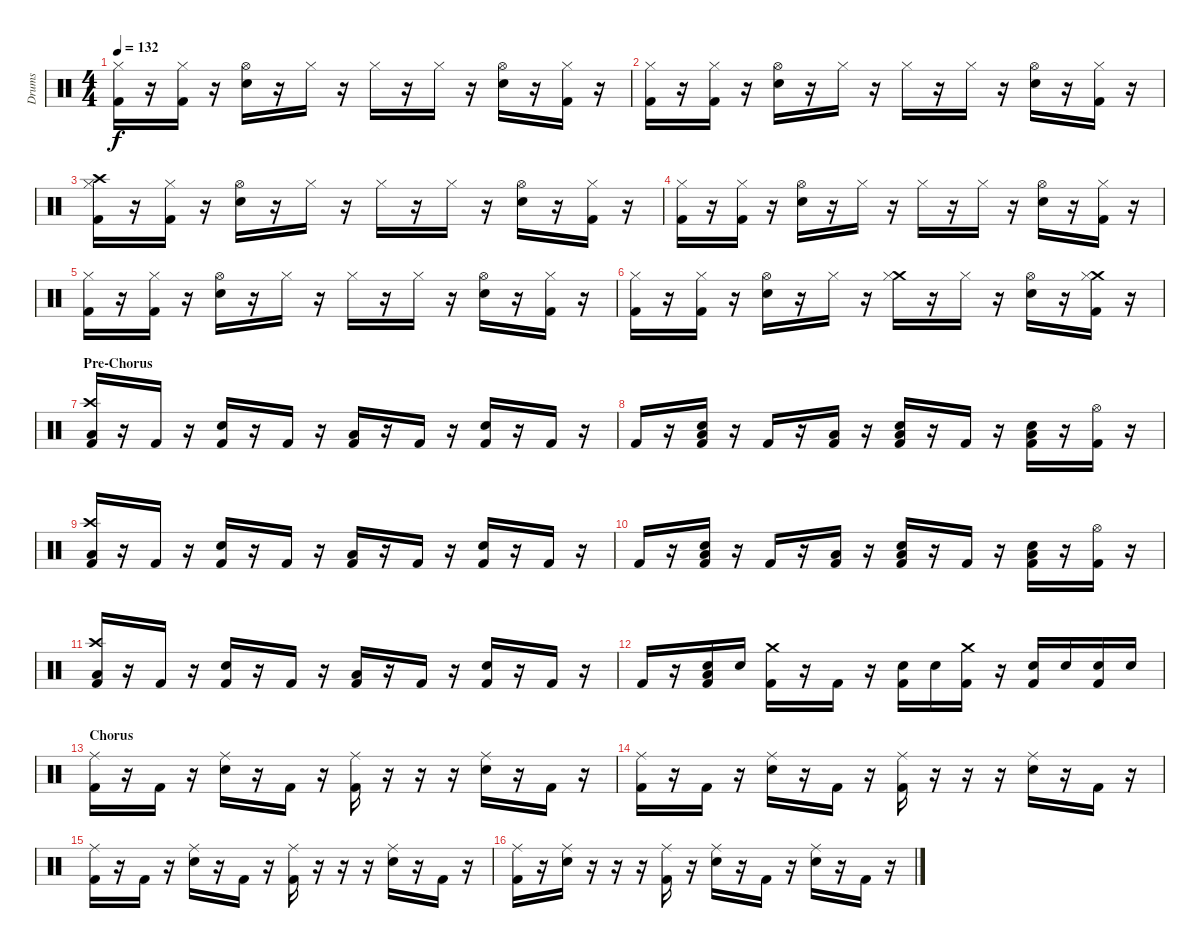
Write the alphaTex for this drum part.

\track ("Drums" "Drums") {instrument percussion}
\staff {score}
\articulation defaults
\ts (4 4)
\tempo 132
\clef neutral
\ks c
("Hi-Hat (closed)" "Kick (hit) 2").16{dy f} r.16 ("Hi-Hat (closed)" "Kick (hit) 2").16 r.16 ("Hi-Hat (open)" "Snare (hit) 2").16 r.16 "Hi-Hat (closed)".16 r.16 "Hi-Hat (closed)".16 r.16 "Hi-Hat (closed)".16 r.16 ("Hi-Hat (open)" "Snare (hit) 2").16 r.16 ("Hi-Hat (closed)" "Kick (hit) 2").16 r.16 |
("Hi-Hat (closed)" "Kick (hit) 2").16 r.16 ("Hi-Hat (closed)" "Kick (hit) 2").16 r.16 ("Hi-Hat (open)" "Snare (hit) 2").16 r.16 "Hi-Hat (closed)".16 r.16 "Hi-Hat (closed)".16 r.16 "Hi-Hat (closed)".16 r.16 ("Hi-Hat (open)" "Snare (hit) 2").16 r.16 ("Hi-Hat (closed)" "Kick (hit) 2").16 r.16 |
("Crash high (hit)" "Hi-Hat (closed)" "Kick (hit) 2").16 r.16 ("Hi-Hat (closed)" "Kick (hit) 2").16 r.16 ("Hi-Hat (open)" "Snare (hit) 2").16 r.16 "Hi-Hat (closed)".16 r.16 "Hi-Hat (closed)".16 r.16 "Hi-Hat (closed)".16 r.16 ("Hi-Hat (open)" "Snare (hit) 2").16 r.16 ("Hi-Hat (closed)" "Kick (hit) 2").16 r.16 |
("Hi-Hat (closed)" "Kick (hit) 2").16 r.16 ("Hi-Hat (closed)" "Kick (hit) 2").16 r.16 ("Hi-Hat (open)" "Snare (hit) 2").16 r.16 "Hi-Hat (closed)".16 r.16 "Hi-Hat (closed)".16 r.16 "Hi-Hat (closed)".16 r.16 ("Hi-Hat (open)" "Snare (hit) 2").16 r.16 ("Hi-Hat (closed)" "Kick (hit) 2").16 r.16 |
("Hi-Hat (closed)" "Kick (hit) 2").16 r.16 ("Hi-Hat (closed)" "Kick (hit) 2").16 r.16 ("Hi-Hat (open)" "Snare (hit) 2").16 r.16 "Hi-Hat (closed)".16 r.16 "Hi-Hat (closed)".16 r.16 "Hi-Hat (closed)".16 r.16 ("Hi-Hat (open)" "Snare (hit) 2").16 r.16 ("Hi-Hat (closed)" "Kick (hit) 2").16 r.16 |
("Hi-Hat (closed)" "Kick (hit) 2").16 r.16 ("Hi-Hat (closed)" "Kick (hit) 2").16 r.16 ("Hi-Hat (open)" "Snare (hit) 2").16 r.16 "Hi-Hat (closed)".16 r.16 ("Crash medium (hit)" "Hi-Hat (closed)").16 r.16 "Hi-Hat (closed)".16 r.16 ("Hi-Hat (open)" "Snare (hit) 2").16 r.16 ("Crash medium (hit)" "Hi-Hat (closed)" "Kick (hit) 2").16 r.16 |
\section ("" "Pre-Chorus")
("Crash high (hit)" "Low Tom (hit)" "Kick (hit) 2").16 r.16 "Kick (hit) 2".16 r.16 ("Snare (hit) 2" "Kick (hit) 2").16 r.16 "Kick (hit) 2".16 r.16 ("Low Tom (hit)" "Kick (hit) 2").16 r.16 "Kick (hit) 2".16 r.16 ("Snare (hit) 2" "Kick (hit) 2").16 r.16 "Kick (hit) 2".16 r.16 |
"Kick (hit) 2".16 r.16 ("Low Tom (hit)" "Snare (hit) 2" "Kick (hit) 2").16 r.16 "Kick (hit) 2".16 r.16 ("Low Tom (hit)" "Kick (hit) 2").16 r.16 ("Low Tom (hit)" "Snare (hit) 2" "Kick (hit) 2").16 r.16 "Kick (hit) 2".16 r.16 ("Low Tom (hit)" "Snare (hit) 2" "Kick (hit) 2").16 r.16 ("Hi-Hat (open)" "Kick (hit) 2").16 r.16 |
("Crash high (hit)" "Low Tom (hit)" "Kick (hit) 2").16 r.16 "Kick (hit) 2".16 r.16 ("Snare (hit) 2" "Kick (hit) 2").16 r.16 "Kick (hit) 2".16 r.16 ("Low Tom (hit)" "Kick (hit) 2").16 r.16 "Kick (hit) 2".16 r.16 ("Snare (hit) 2" "Kick (hit) 2").16 r.16 "Kick (hit) 2".16 r.16 |
"Kick (hit) 2".16 r.16 ("Low Tom (hit)" "Snare (hit) 2" "Kick (hit) 2").16 r.16 "Kick (hit) 2".16 r.16 ("Low Tom (hit)" "Kick (hit) 2").16 r.16 ("Low Tom (hit)" "Snare (hit) 2" "Kick (hit) 2").16 r.16 "Kick (hit) 2".16 r.16 ("Low Tom (hit)" "Snare (hit) 2" "Kick (hit) 2").16 r.16 ("Hi-Hat (open)" "Kick (hit) 2").16 r.16 |
("Crash high (hit)" "Low Tom (hit)" "Kick (hit) 2").16 r.16 "Kick (hit) 2".16 r.16 ("Snare (hit) 2" "Kick (hit) 2").16 r.16 "Kick (hit) 2".16 r.16 ("Low Tom (hit)" "Kick (hit) 2").16 r.16 "Kick (hit) 2".16 r.16 ("Snare (hit) 2" "Kick (hit) 2").16 r.16 "Kick (hit) 2".16 r.16 |
"Kick (hit) 2".16 r.16 ("Low Tom (hit)" "Snare (hit) 2" "Kick (hit) 2").16 "Snare (hit) 2".16 ("Crash medium (hit)" "Kick (hit) 2").16 r.16 "Kick (hit) 2".16 r.16 ("Snare (hit) 2" "Kick (hit) 2").16 "Snare (hit) 2".16 ("Crash medium (hit)" "Kick (hit) 2").16 r.16 ("Snare (hit) 2" "Kick (hit) 2").16 "Snare (hit) 2".16 ("Snare (hit) 2" "Kick (hit) 2").16 "Snare (hit) 2".16 |
\section ("" "Chorus")
("Ride (middle)" "Kick (hit) 2").16 r.16 "Kick (hit) 2".16 r.16 ("Ride (middle)" "Snare (hit) 2").16 r.16 "Kick (hit) 2".16 r.16 ("Ride (middle)" "Kick (hit) 2").16 r.16 r.16 r.16 ("Ride (middle)" "Snare (hit) 2").16 r.16 "Kick (hit) 2".16 r.16 |
("Ride (middle)" "Kick (hit) 2").16 r.16 "Kick (hit) 2".16 r.16 ("Ride (middle)" "Snare (hit) 2").16 r.16 "Kick (hit) 2".16 r.16 ("Ride (middle)" "Kick (hit) 2").16 r.16 r.16 r.16 ("Ride (middle)" "Snare (hit) 2").16 r.16 "Kick (hit) 2".16 r.16 |
("Ride (middle)" "Kick (hit) 2").16 r.16 "Kick (hit) 2".16 r.16 ("Ride (middle)" "Snare (hit) 2").16 r.16 "Kick (hit) 2".16 r.16 ("Ride (middle)" "Kick (hit) 2").16 r.16 r.16 r.16 ("Ride (middle)" "Snare (hit) 2").16 r.16 "Kick (hit) 2".16 r.16 |
("Ride (middle)" "Kick (hit) 2").16 r.16 ("Ride (middle)" "Snare (hit) 2").16 r.16 r.16 r.16 ("Ride (middle)" "Kick (hit) 2").16 r.16 ("Ride (middle)" "Snare (hit) 2").16 r.16 "Kick (hit) 2".16 r.16 ("Ride (middle)" "Snare (hit) 2").16 r.16 "Kick (hit) 2".16 r.16
